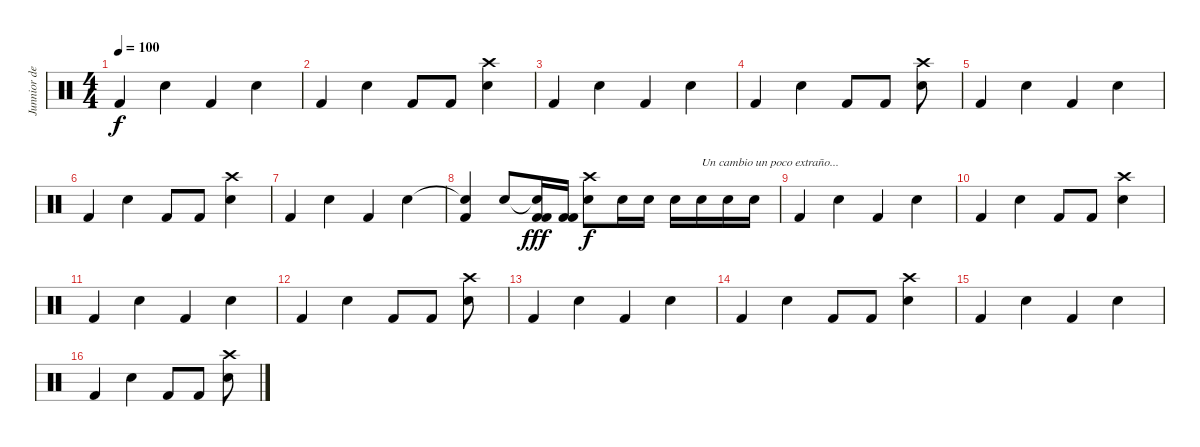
\track ("Junnior de Jesus" "Junnior de") {instrument percussion}
\staff {score}
\articulation defaults
\ts (4 4)
\tempo 100
\clef neutral
\ks c "Kick (hit) 2".4{dy f} "Snare (hit) 2".4 "Kick (hit) 2".4 "Snare (hit) 2".4
|
"Kick (hit) 2".4 "Snare (hit) 2".4 "Kick (hit) 2".8 "Kick (hit) 2".8 ("Snare (hit) 2" "Crash high (hit)").4 |
"Kick (hit) 2".4 "Snare (hit) 2".4 "Kick (hit) 2".4 "Snare (hit) 2".4 |
"Kick (hit) 2".4 "Snare (hit) 2".4 "Kick (hit) 2".8 "Kick (hit) 2".8 ("Snare (hit) 2" "Crash high (hit)").8 |
"Kick (hit) 2".4 "Snare (hit) 2".4 "Kick (hit) 2".4 "Snare (hit) 2".4 |
"Kick (hit) 2".4 "Snare (hit) 2".4 "Kick (hit) 2".8 "Kick (hit) 2".8 ("Snare (hit) 2" "Crash high (hit)").4 |
"Kick (hit) 2".4 "Snare (hit) 2".4 "Kick (hit) 2".4 "Snare (hit) 2".4 |
("Snare (hit)"{t} "Kick (hit) 2").4 "Snare (hit) 2".8 ("Snare (hit)"{t} "Kick (hit) 2" "Kick (hit) 2").16{dy fff} ("Kick (hit) 2" "Kick (hit) 2").16 ("Crash high (hit)" "Electric Snare (hit)").8{dy f} "Electric Snare (hit)".16 "Electric Snare (hit)".16 "Electric Snare (hit)".16 "Electric Snare (hit)".16{txt "Un cambio un poco extraño..."} "Electric Snare (hit)".16 "Electric Snare (hit)".16 |
"Kick (hit) 2".4 "Snare (hit) 2".4 "Kick (hit) 2".4 "Snare (hit) 2".4 |
"Kick (hit) 2".4 "Snare (hit) 2".4 "Kick (hit) 2".8 "Kick (hit) 2".8 ("Snare (hit) 2" "Crash high (hit)").4 |
"Kick (hit) 2".4 "Snare (hit) 2".4 "Kick (hit) 2".4 "Snare (hit) 2".4 |
"Kick (hit) 2".4 "Snare (hit) 2".4 "Kick (hit) 2".8 "Kick (hit) 2".8 ("Snare (hit) 2" "Crash high (hit)").8 |
"Kick (hit) 2".4 "Snare (hit) 2".4 "Kick (hit) 2".4 "Snare (hit) 2".4 |
"Kick (hit) 2".4 "Snare (hit) 2".4 "Kick (hit) 2".8 "Kick (hit) 2".8 ("Snare (hit) 2" "Crash high (hit)").4 |
"Kick (hit) 2".4 "Snare (hit) 2".4 "Kick (hit) 2".4 "Snare (hit) 2".4 |
"Kick (hit) 2".4 "Snare (hit) 2".4 "Kick (hit) 2".8 "Kick (hit) 2".8 ("Snare (hit) 2" "Crash high (hit)").8
